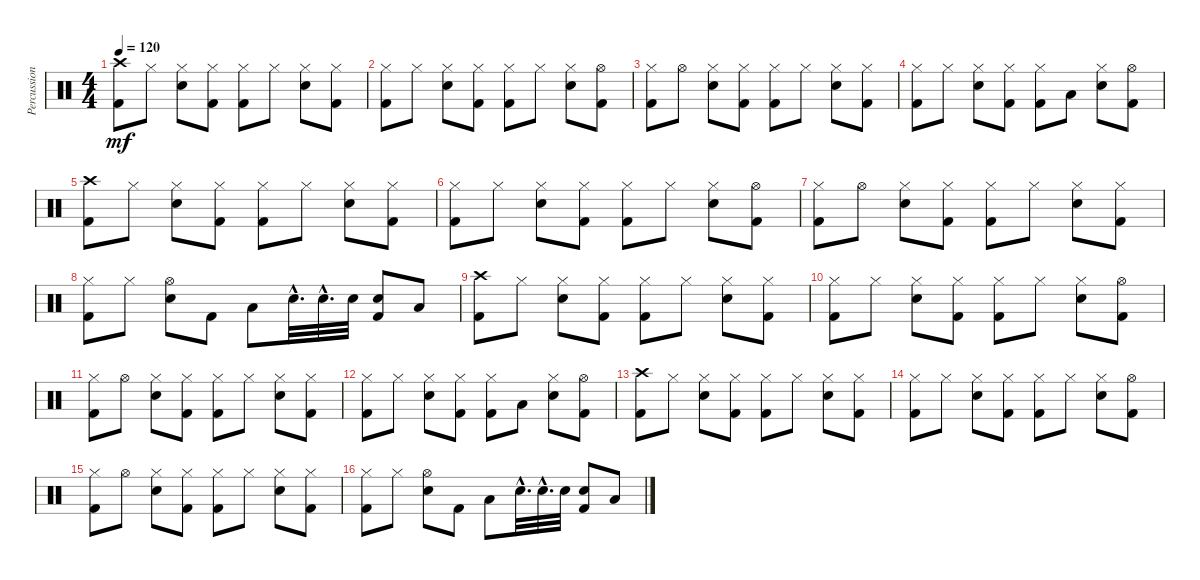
\track ("Percussion" "Percussion") {instrument percussion}
\staff {score}
\articulation defaults
\ts (4 4)
\tempo 120
\clef neutral
\ks c
("Kick (hit) 2" "Crash high (hit)").8{dy mf} "Hi-Hat (closed)".8 ("Hi-Hat (closed)" "Snare (hit) 2").8 ("Hi-Hat (closed)" "Kick (hit) 2").8 ("Kick (hit) 2" "Hi-Hat (closed)").8 "Hi-Hat (closed)".8 ("Snare (hit) 2" "Hi-Hat (closed)").8 ("Kick (hit) 2" "Hi-Hat (closed)").8 |
("Kick (hit) 2" "Hi-Hat (closed)").8 "Hi-Hat (closed)".8 ("Hi-Hat (closed)" "Snare (hit) 2").8 ("Hi-Hat (closed)" "Kick (hit) 2").8 ("Kick (hit) 2" "Hi-Hat (closed)").8 "Hi-Hat (closed)".8 ("Snare (hit) 2" "Hi-Hat (closed)").8 ("Hi-Hat (open)" "Kick (hit) 2").8 |
("Kick (hit) 2" "Hi-Hat (closed)").8 "Hi-Hat (open)".8 ("Hi-Hat (closed)" "Snare (hit) 2").8 ("Hi-Hat (closed)" "Kick (hit) 2").8 ("Kick (hit) 2" "Hi-Hat (closed)").8 "Hi-Hat (closed)".8 ("Snare (hit) 2" "Hi-Hat (closed)").8 ("Kick (hit) 2" "Hi-Hat (closed)").8 |
("Kick (hit) 2" "Hi-Hat (closed)").8 "Hi-Hat (closed)".8 ("Hi-Hat (closed)" "Snare (hit) 2").8 ("Hi-Hat (closed)" "Kick (hit) 2").8 ("Kick (hit) 2" "Hi-Hat (closed)").8 "Low Floor Tom (hit)".8 ("Snare (hit) 2" "Hi-Hat (closed)").8 ("Hi-Hat (open)" "Kick (hit) 2").8 |
("Kick (hit) 2" "Crash high (hit)").8 "Hi-Hat (closed)".8 ("Hi-Hat (closed)" "Snare (hit) 2").8 ("Hi-Hat (closed)" "Kick (hit) 2").8 ("Kick (hit) 2" "Hi-Hat (closed)").8 "Hi-Hat (closed)".8 ("Snare (hit) 2" "Hi-Hat (closed)").8 ("Kick (hit) 2" "Hi-Hat (closed)").8 |
("Kick (hit) 2" "Hi-Hat (closed)").8 "Hi-Hat (closed)".8 ("Hi-Hat (closed)" "Snare (hit) 2").8 ("Hi-Hat (closed)" "Kick (hit) 2").8 ("Kick (hit) 2" "Hi-Hat (closed)").8 "Hi-Hat (closed)".8 ("Snare (hit) 2" "Hi-Hat (closed)").8 ("Hi-Hat (open)" "Kick (hit) 2").8 |
("Kick (hit) 2" "Hi-Hat (closed)").8 "Hi-Hat (open)".8 ("Hi-Hat (closed)" "Snare (hit) 2").8 ("Hi-Hat (closed)" "Kick (hit) 2").8 ("Kick (hit) 2" "Hi-Hat (closed)").8 "Hi-Hat (closed)".8 ("Snare (hit) 2" "Hi-Hat (closed)").8 ("Kick (hit) 2" "Hi-Hat (closed)").8 |
("Kick (hit) 2" "Hi-Hat (closed)").8 "Hi-Hat (closed)".8 ("Hi-Hat (open)" "Snare (hit) 2").8 "Kick (hit) 2".8 "Low Tom (hit)".8 "Snare (hit) 2"{hac}.32{d} "Snare (hit) 2"{hac}.32{d} "Snare (hit) 2".32 ("Snare (hit) 2" "Kick (hit) 2").8 "Low Floor Tom (hit)".8 |
("Kick (hit) 2" "Crash high (hit)").8 "Hi-Hat (closed)".8 ("Hi-Hat (closed)" "Snare (hit) 2").8 ("Hi-Hat (closed)" "Kick (hit) 2").8 ("Kick (hit) 2" "Hi-Hat (closed)").8 "Hi-Hat (closed)".8 ("Snare (hit) 2" "Hi-Hat (closed)").8 ("Kick (hit) 2" "Hi-Hat (closed)").8 |
("Kick (hit) 2" "Hi-Hat (closed)").8 "Hi-Hat (closed)".8 ("Hi-Hat (closed)" "Snare (hit) 2").8 ("Hi-Hat (closed)" "Kick (hit) 2").8 ("Kick (hit) 2" "Hi-Hat (closed)").8 "Hi-Hat (closed)".8 ("Snare (hit) 2" "Hi-Hat (closed)").8 ("Hi-Hat (open)" "Kick (hit) 2").8 |
("Kick (hit) 2" "Hi-Hat (closed)").8 "Hi-Hat (open)".8 ("Hi-Hat (closed)" "Snare (hit) 2").8 ("Hi-Hat (closed)" "Kick (hit) 2").8 ("Kick (hit) 2" "Hi-Hat (closed)").8 "Hi-Hat (closed)".8 ("Snare (hit) 2" "Hi-Hat (closed)").8 ("Kick (hit) 2" "Hi-Hat (closed)").8 |
("Kick (hit) 2" "Hi-Hat (closed)").8 "Hi-Hat (closed)".8 ("Hi-Hat (closed)" "Snare (hit) 2").8 ("Hi-Hat (closed)" "Kick (hit) 2").8 ("Kick (hit) 2" "Hi-Hat (closed)").8 "Low Floor Tom (hit)".8 ("Snare (hit) 2" "Hi-Hat (closed)").8 ("Hi-Hat (open)" "Kick (hit) 2").8 |
("Kick (hit) 2" "Crash high (hit)").8 "Hi-Hat (closed)".8 ("Hi-Hat (closed)" "Snare (hit) 2").8 ("Hi-Hat (closed)" "Kick (hit) 2").8 ("Kick (hit) 2" "Hi-Hat (closed)").8 "Hi-Hat (closed)".8 ("Snare (hit) 2" "Hi-Hat (closed)").8 ("Kick (hit) 2" "Hi-Hat (closed)").8 |
("Kick (hit) 2" "Hi-Hat (closed)").8 "Hi-Hat (closed)".8 ("Hi-Hat (closed)" "Snare (hit) 2").8 ("Hi-Hat (closed)" "Kick (hit) 2").8 ("Kick (hit) 2" "Hi-Hat (closed)").8 "Hi-Hat (closed)".8 ("Snare (hit) 2" "Hi-Hat (closed)").8 ("Hi-Hat (open)" "Kick (hit) 2").8 |
("Kick (hit) 2" "Hi-Hat (closed)").8 "Hi-Hat (open)".8 ("Hi-Hat (closed)" "Snare (hit) 2").8 ("Hi-Hat (closed)" "Kick (hit) 2").8 ("Kick (hit) 2" "Hi-Hat (closed)").8 "Hi-Hat (closed)".8 ("Snare (hit) 2" "Hi-Hat (closed)").8 ("Kick (hit) 2" "Hi-Hat (closed)").8 |
("Kick (hit) 2" "Hi-Hat (closed)").8 "Hi-Hat (closed)".8 ("Hi-Hat (open)" "Snare (hit) 2").8 "Kick (hit) 2".8 "Low Tom (hit)".8 "Snare (hit) 2"{hac}.32{d} "Snare (hit) 2"{hac}.32{d} "Snare (hit) 2".32 ("Snare (hit) 2" "Kick (hit) 2").8 "Low Floor Tom (hit)".8
